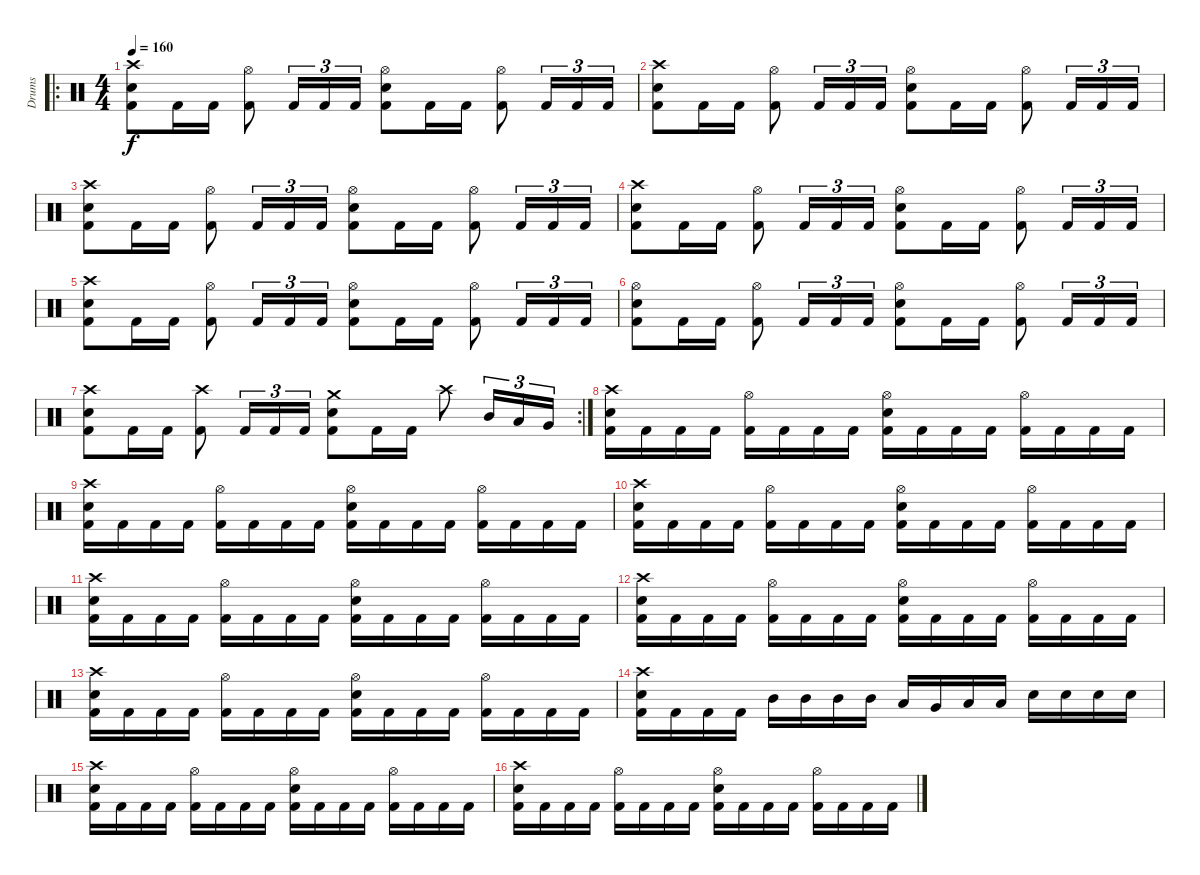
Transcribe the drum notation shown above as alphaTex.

\track ("Drums" "Drums") {instrument percussion}
\staff {score}
\articulation defaults
\ro
\ts (4 4)
\tempo 160
\clef neutral
\ks c
("Kick (hit) 2" "Snare (hit) 2" "Crash high (hit)").8{dy f} "Kick (hit) 2".16 "Kick (hit) 2".16 ("Kick (hit) 2" "Hi-Hat (open)").8 "Kick (hit) 2".16{tu (3 2)} "Kick (hit) 2".16{tu (3 2)} "Kick (hit) 2".16{tu (3 2)} ("Kick (hit) 2" "Snare (hit) 2" "Hi-Hat (open)").8 "Kick (hit) 2".16 "Kick (hit) 2".16 ("Kick (hit) 2" "Hi-Hat (open)").8 "Kick (hit) 2".16{tu (3 2)} "Kick (hit) 2".16{tu (3 2)} "Kick (hit) 2".16{tu (3 2)} |
("Kick (hit) 2" "Snare (hit) 2" "Crash high (hit)").8 "Kick (hit) 2".16 "Kick (hit) 2".16 ("Kick (hit) 2" "Hi-Hat (open)").8 "Kick (hit) 2".16{tu (3 2)} "Kick (hit) 2".16{tu (3 2)} "Kick (hit) 2".16{tu (3 2)} ("Kick (hit) 2" "Snare (hit) 2" "Hi-Hat (open)").8 "Kick (hit) 2".16 "Kick (hit) 2".16 ("Kick (hit) 2" "Hi-Hat (open)").8 "Kick (hit) 2".16{tu (3 2)} "Kick (hit) 2".16{tu (3 2)} "Kick (hit) 2".16{tu (3 2)} |
("Kick (hit) 2" "Snare (hit) 2" "Crash high (hit)").8 "Kick (hit) 2".16 "Kick (hit) 2".16 ("Kick (hit) 2" "Hi-Hat (open)").8 "Kick (hit) 2".16{tu (3 2)} "Kick (hit) 2".16{tu (3 2)} "Kick (hit) 2".16{tu (3 2)} ("Kick (hit) 2" "Snare (hit) 2" "Hi-Hat (open)").8 "Kick (hit) 2".16 "Kick (hit) 2".16 ("Kick (hit) 2" "Hi-Hat (open)").8 "Kick (hit) 2".16{tu (3 2)} "Kick (hit) 2".16{tu (3 2)} "Kick (hit) 2".16{tu (3 2)} |
("Kick (hit) 2" "Snare (hit) 2" "Crash high (hit)").8 "Kick (hit) 2".16 "Kick (hit) 2".16 ("Kick (hit) 2" "Hi-Hat (open)").8 "Kick (hit) 2".16{tu (3 2)} "Kick (hit) 2".16{tu (3 2)} "Kick (hit) 2".16{tu (3 2)} ("Kick (hit) 2" "Snare (hit) 2" "Hi-Hat (open)").8 "Kick (hit) 2".16 "Kick (hit) 2".16 ("Kick (hit) 2" "Hi-Hat (open)").8 "Kick (hit) 2".16{tu (3 2)} "Kick (hit) 2".16{tu (3 2)} "Kick (hit) 2".16{tu (3 2)} |
("Kick (hit) 2" "Snare (hit) 2" "Crash high (hit)").8 "Kick (hit) 2".16 "Kick (hit) 2".16 ("Kick (hit) 2" "Hi-Hat (open)").8 "Kick (hit) 2".16{tu (3 2)} "Kick (hit) 2".16{tu (3 2)} "Kick (hit) 2".16{tu (3 2)} ("Kick (hit) 2" "Snare (hit) 2" "Hi-Hat (open)").8 "Kick (hit) 2".16 "Kick (hit) 2".16 ("Kick (hit) 2" "Hi-Hat (open)").8 "Kick (hit) 2".16{tu (3 2)} "Kick (hit) 2".16{tu (3 2)} "Kick (hit) 2".16{tu (3 2)} |
("Kick (hit) 2" "Snare (hit) 2" "Hi-Hat (open)").8 "Kick (hit) 2".16 "Kick (hit) 2".16 ("Kick (hit) 2" "Hi-Hat (open)").8 "Kick (hit) 2".16{tu (3 2)} "Kick (hit) 2".16{tu (3 2)} "Kick (hit) 2".16{tu (3 2)} ("Kick (hit) 2" "Snare (hit) 2" "Hi-Hat (open)").8 "Kick (hit) 2".16 "Kick (hit) 2".16 ("Kick (hit) 2" "Hi-Hat (open)").8 "Kick (hit) 2".16{tu (3 2)} "Kick (hit) 2".16{tu (3 2)} "Kick (hit) 2".16{tu (3 2)} |
\rc 2
("Kick (hit) 2" "Snare (hit) 2" "Crash high (hit)").8 "Kick (hit) 2".16 "Kick (hit) 2".16 ("Kick (hit) 2" "Crash high (hit)").8 "Kick (hit) 2".16{tu (3 2)} "Kick (hit) 2".16{tu (3 2)} "Kick (hit) 2".16{tu (3 2)} ("Kick (hit) 2" "Snare (hit) 2" "Crash medium (hit)").8 "Kick (hit) 2".16 "Kick (hit) 2".16 "Crash high (hit)".8 "Mid Tom (hit)".16{tu (3 2)} "Low Tom (hit)".16{tu (3 2)} "Very Low Tom (hit)".16{tu (3 2)} |
("Kick (hit) 2" "Snare (hit) 2" "Crash high (hit)").16{volume 13} "Kick (hit) 2".16 "Kick (hit) 2".16 "Kick (hit) 2".16 ("Kick (hit) 2" "Hi-Hat (open)").16 "Kick (hit) 2".16 "Kick (hit) 2".16 "Kick (hit) 2".16 ("Kick (hit) 2" "Hi-Hat (open)" "Snare (hit) 2").16 "Kick (hit) 2".16 "Kick (hit) 2".16 "Kick (hit) 2".16 ("Kick (hit) 2" "Hi-Hat (open)").16 "Kick (hit) 2".16 "Kick (hit) 2".16 "Kick (hit) 2".16 |
("Kick (hit) 2" "Snare (hit) 2" "Crash high (hit)").16 "Kick (hit) 2".16 "Kick (hit) 2".16 "Kick (hit) 2".16 ("Kick (hit) 2" "Hi-Hat (open)").16 "Kick (hit) 2".16 "Kick (hit) 2".16 "Kick (hit) 2".16 ("Kick (hit) 2" "Hi-Hat (open)" "Snare (hit) 2").16 "Kick (hit) 2".16 "Kick (hit) 2".16 "Kick (hit) 2".16 ("Kick (hit) 2" "Hi-Hat (open)").16 "Kick (hit) 2".16 "Kick (hit) 2".16 "Kick (hit) 2".16 |
("Kick (hit) 2" "Snare (hit) 2" "Crash high (hit)").16{volume 11} "Kick (hit) 2".16 "Kick (hit) 2".16 "Kick (hit) 2".16 ("Kick (hit) 2" "Hi-Hat (open)").16 "Kick (hit) 2".16 "Kick (hit) 2".16 "Kick (hit) 2".16 ("Kick (hit) 2" "Hi-Hat (open)" "Snare (hit) 2").16 "Kick (hit) 2".16 "Kick (hit) 2".16 "Kick (hit) 2".16 ("Kick (hit) 2" "Hi-Hat (open)").16 "Kick (hit) 2".16 "Kick (hit) 2".16 "Kick (hit) 2".16 |
("Kick (hit) 2" "Snare (hit) 2" "Crash high (hit)").16 "Kick (hit) 2".16 "Kick (hit) 2".16 "Kick (hit) 2".16 ("Kick (hit) 2" "Hi-Hat (open)").16 "Kick (hit) 2".16 "Kick (hit) 2".16 "Kick (hit) 2".16 ("Kick (hit) 2" "Hi-Hat (open)" "Snare (hit) 2").16 "Kick (hit) 2".16 "Kick (hit) 2".16 "Kick (hit) 2".16 ("Kick (hit) 2" "Hi-Hat (open)").16 "Kick (hit) 2".16 "Kick (hit) 2".16 "Kick (hit) 2".16 |
("Kick (hit) 2" "Snare (hit) 2" "Crash high (hit)").16{volume 9} "Kick (hit) 2".16 "Kick (hit) 2".16 "Kick (hit) 2".16 ("Kick (hit) 2" "Hi-Hat (open)").16 "Kick (hit) 2".16 "Kick (hit) 2".16 "Kick (hit) 2".16 ("Kick (hit) 2" "Hi-Hat (open)" "Snare (hit) 2").16 "Kick (hit) 2".16 "Kick (hit) 2".16 "Kick (hit) 2".16 ("Kick (hit) 2" "Hi-Hat (open)").16 "Kick (hit) 2".16 "Kick (hit) 2".16 "Kick (hit) 2".16 |
("Kick (hit) 2" "Snare (hit) 2" "Crash high (hit)").16 "Kick (hit) 2".16 "Kick (hit) 2".16 "Kick (hit) 2".16 ("Kick (hit) 2" "Hi-Hat (open)").16 "Kick (hit) 2".16 "Kick (hit) 2".16 "Kick (hit) 2".16 ("Kick (hit) 2" "Hi-Hat (open)" "Snare (hit) 2").16 "Kick (hit) 2".16 "Kick (hit) 2".16 "Kick (hit) 2".16 ("Kick (hit) 2" "Hi-Hat (open)").16 "Kick (hit) 2".16 "Kick (hit) 2".16 "Kick (hit) 2".16 |
("Kick (hit) 2" "Snare (hit) 2" "Crash high (hit)").16{volume 7} "Kick (hit) 2".16 "Kick (hit) 2".16 "Kick (hit) 2".16 "Mid Tom (hit)".16 "Mid Tom (hit)".16 "Mid Tom (hit)".16 "Mid Tom (hit)".16 "Low Tom (hit)".16 "Very Low Tom (hit)".16 "Low Floor Tom (hit)".16 "Low Tom (hit)".16 "Snare (hit) 2".16 "Snare (hit) 2".16 "Snare (hit) 2".16 "Snare (hit) 2".16 |
("Kick (hit) 2" "Snare (hit) 2" "Crash high (hit)").16{volume 5} "Kick (hit) 2".16 "Kick (hit) 2".16 "Kick (hit) 2".16 ("Kick (hit) 2" "Hi-Hat (open)").16 "Kick (hit) 2".16 "Kick (hit) 2".16 "Kick (hit) 2".16 ("Kick (hit) 2" "Hi-Hat (open)" "Snare (hit) 2").16 "Kick (hit) 2".16 "Kick (hit) 2".16 "Kick (hit) 2".16 ("Kick (hit) 2" "Hi-Hat (open)").16 "Kick (hit) 2".16 "Kick (hit) 2".16 "Kick (hit) 2".16 |
("Kick (hit) 2" "Snare (hit) 2" "Crash high (hit)").16 "Kick (hit) 2".16 "Kick (hit) 2".16 "Kick (hit) 2".16 ("Kick (hit) 2" "Hi-Hat (open)").16 "Kick (hit) 2".16 "Kick (hit) 2".16 "Kick (hit) 2".16 ("Kick (hit) 2" "Hi-Hat (open)" "Snare (hit) 2").16 "Kick (hit) 2".16 "Kick (hit) 2".16 "Kick (hit) 2".16 ("Kick (hit) 2" "Hi-Hat (open)").16 "Kick (hit) 2".16 "Kick (hit) 2".16 "Kick (hit) 2".16
